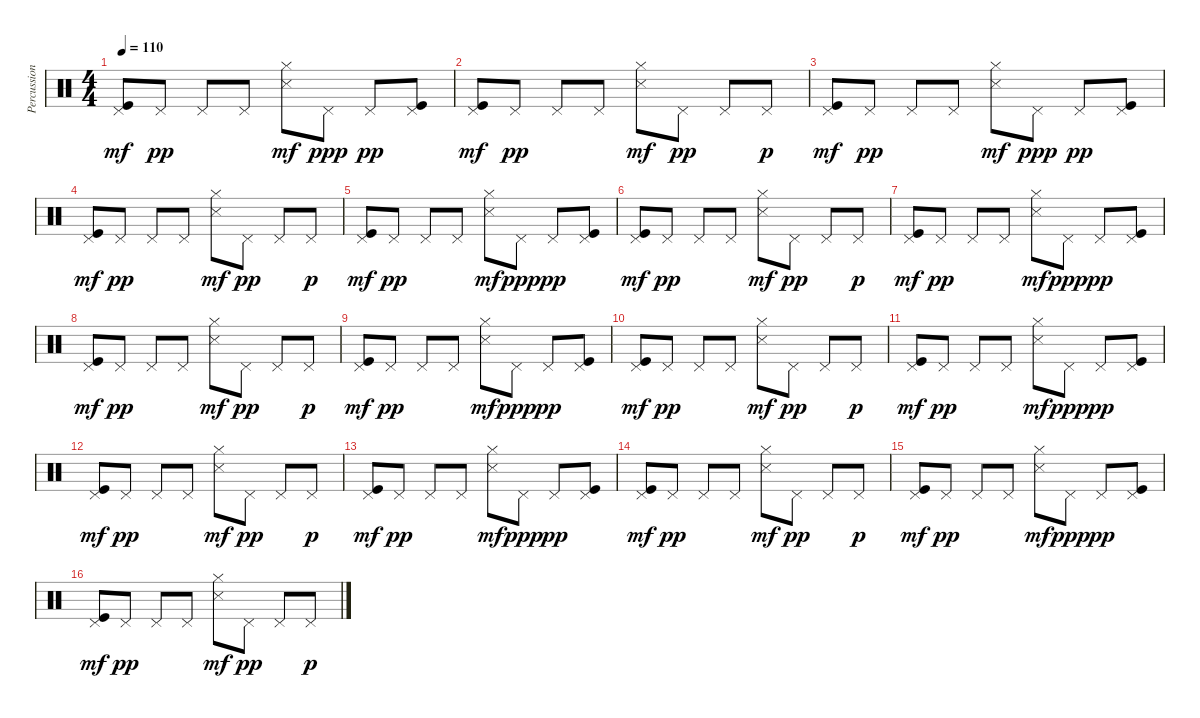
\track ("Percussions" "Percussion") {instrument percussion}
\staff {score}
\articulation defaults
\ts (4 4)
\tempo 110
\clef neutral
\ks c
("Kick (hit)" "Pedal Hi-Hat (hit)").8{dy mf} "Pedal Hi-Hat (hit)".8{dy pp} "Pedal Hi-Hat (hit)".8 "Pedal Hi-Hat (hit)".8 ("Snare (side stick) 3" "Hi-Hat (closed)").8{dy mf} "Pedal Hi-Hat (hit)".8{dy ppp} "Pedal Hi-Hat (hit)".8{dy pp} ("Kick (hit)" "Pedal Hi-Hat (hit)").8 |
("Kick (hit)" "Pedal Hi-Hat (hit)").8{dy mf} "Pedal Hi-Hat (hit)".8{dy pp} "Pedal Hi-Hat (hit)".8 "Pedal Hi-Hat (hit)".8 ("Snare (side stick) 3" "Hi-Hat (closed)").8{dy mf} "Pedal Hi-Hat (hit)".8{dy pp} "Pedal Hi-Hat (hit)".8 "Pedal Hi-Hat (hit)".8{dy p} |
("Kick (hit)" "Pedal Hi-Hat (hit)").8{dy mf} "Pedal Hi-Hat (hit)".8{dy pp} "Pedal Hi-Hat (hit)".8 "Pedal Hi-Hat (hit)".8 ("Snare (side stick) 3" "Hi-Hat (closed)").8{dy mf} "Pedal Hi-Hat (hit)".8{dy ppp} "Pedal Hi-Hat (hit)".8{dy pp} ("Kick (hit)" "Pedal Hi-Hat (hit)").8 |
("Kick (hit)" "Pedal Hi-Hat (hit)").8{dy mf} "Pedal Hi-Hat (hit)".8{dy pp} "Pedal Hi-Hat (hit)".8 "Pedal Hi-Hat (hit)".8 ("Snare (side stick) 3" "Hi-Hat (closed)").8{dy mf} "Pedal Hi-Hat (hit)".8{dy pp} "Pedal Hi-Hat (hit)".8 "Pedal Hi-Hat (hit)".8{dy p} |
("Kick (hit)" "Pedal Hi-Hat (hit)").8{dy mf} "Pedal Hi-Hat (hit)".8{dy pp} "Pedal Hi-Hat (hit)".8 "Pedal Hi-Hat (hit)".8 ("Snare (side stick) 3" "Hi-Hat (closed)").8{dy mf} "Pedal Hi-Hat (hit)".8{dy ppp} "Pedal Hi-Hat (hit)".8{dy pp} ("Kick (hit)" "Pedal Hi-Hat (hit)").8 |
("Kick (hit)" "Pedal Hi-Hat (hit)").8{dy mf} "Pedal Hi-Hat (hit)".8{dy pp} "Pedal Hi-Hat (hit)".8 "Pedal Hi-Hat (hit)".8 ("Snare (side stick) 3" "Hi-Hat (closed)").8{dy mf} "Pedal Hi-Hat (hit)".8{dy pp} "Pedal Hi-Hat (hit)".8 "Pedal Hi-Hat (hit)".8{dy p} |
("Kick (hit)" "Pedal Hi-Hat (hit)").8{dy mf} "Pedal Hi-Hat (hit)".8{dy pp} "Pedal Hi-Hat (hit)".8 "Pedal Hi-Hat (hit)".8 ("Snare (side stick) 3" "Hi-Hat (closed)").8{dy mf} "Pedal Hi-Hat (hit)".8{dy ppp} "Pedal Hi-Hat (hit)".8{dy pp} ("Kick (hit)" "Pedal Hi-Hat (hit)").8 |
("Kick (hit)" "Pedal Hi-Hat (hit)").8{dy mf} "Pedal Hi-Hat (hit)".8{dy pp} "Pedal Hi-Hat (hit)".8 "Pedal Hi-Hat (hit)".8 ("Snare (side stick) 3" "Hi-Hat (closed)").8{dy mf} "Pedal Hi-Hat (hit)".8{dy pp} "Pedal Hi-Hat (hit)".8 "Pedal Hi-Hat (hit)".8{dy p} |
("Kick (hit)" "Pedal Hi-Hat (hit)").8{dy mf} "Pedal Hi-Hat (hit)".8{dy pp} "Pedal Hi-Hat (hit)".8 "Pedal Hi-Hat (hit)".8 ("Snare (side stick) 3" "Hi-Hat (closed)").8{dy mf} "Pedal Hi-Hat (hit)".8{dy ppp} "Pedal Hi-Hat (hit)".8{dy pp} ("Kick (hit)" "Pedal Hi-Hat (hit)").8 |
("Kick (hit)" "Pedal Hi-Hat (hit)").8{dy mf} "Pedal Hi-Hat (hit)".8{dy pp} "Pedal Hi-Hat (hit)".8 "Pedal Hi-Hat (hit)".8 ("Snare (side stick) 3" "Hi-Hat (closed)").8{dy mf} "Pedal Hi-Hat (hit)".8{dy pp} "Pedal Hi-Hat (hit)".8 "Pedal Hi-Hat (hit)".8{dy p} |
("Kick (hit)" "Pedal Hi-Hat (hit)").8{dy mf} "Pedal Hi-Hat (hit)".8{dy pp} "Pedal Hi-Hat (hit)".8 "Pedal Hi-Hat (hit)".8 ("Snare (side stick) 3" "Hi-Hat (closed)").8{dy mf} "Pedal Hi-Hat (hit)".8{dy ppp} "Pedal Hi-Hat (hit)".8{dy pp} ("Kick (hit)" "Pedal Hi-Hat (hit)").8 |
("Kick (hit)" "Pedal Hi-Hat (hit)").8{dy mf} "Pedal Hi-Hat (hit)".8{dy pp} "Pedal Hi-Hat (hit)".8 "Pedal Hi-Hat (hit)".8 ("Snare (side stick) 3" "Hi-Hat (closed)").8{dy mf} "Pedal Hi-Hat (hit)".8{dy pp} "Pedal Hi-Hat (hit)".8 "Pedal Hi-Hat (hit)".8{dy p} |
("Kick (hit)" "Pedal Hi-Hat (hit)").8{dy mf} "Pedal Hi-Hat (hit)".8{dy pp} "Pedal Hi-Hat (hit)".8 "Pedal Hi-Hat (hit)".8 ("Snare (side stick) 3" "Hi-Hat (closed)").8{dy mf} "Pedal Hi-Hat (hit)".8{dy ppp} "Pedal Hi-Hat (hit)".8{dy pp} ("Kick (hit)" "Pedal Hi-Hat (hit)").8 |
("Kick (hit)" "Pedal Hi-Hat (hit)").8{dy mf} "Pedal Hi-Hat (hit)".8{dy pp} "Pedal Hi-Hat (hit)".8 "Pedal Hi-Hat (hit)".8 ("Snare (side stick) 3" "Hi-Hat (closed)").8{dy mf} "Pedal Hi-Hat (hit)".8{dy pp} "Pedal Hi-Hat (hit)".8 "Pedal Hi-Hat (hit)".8{dy p} |
("Kick (hit)" "Pedal Hi-Hat (hit)").8{dy mf} "Pedal Hi-Hat (hit)".8{dy pp} "Pedal Hi-Hat (hit)".8 "Pedal Hi-Hat (hit)".8 ("Snare (side stick) 3" "Hi-Hat (closed)").8{dy mf} "Pedal Hi-Hat (hit)".8{dy ppp} "Pedal Hi-Hat (hit)".8{dy pp} ("Kick (hit)" "Pedal Hi-Hat (hit)").8 |
("Kick (hit)" "Pedal Hi-Hat (hit)").8{dy mf} "Pedal Hi-Hat (hit)".8{dy pp} "Pedal Hi-Hat (hit)".8 "Pedal Hi-Hat (hit)".8 ("Snare (side stick) 3" "Hi-Hat (closed)").8{dy mf} "Pedal Hi-Hat (hit)".8{dy pp} "Pedal Hi-Hat (hit)".8 "Pedal Hi-Hat (hit)".8{dy p}
